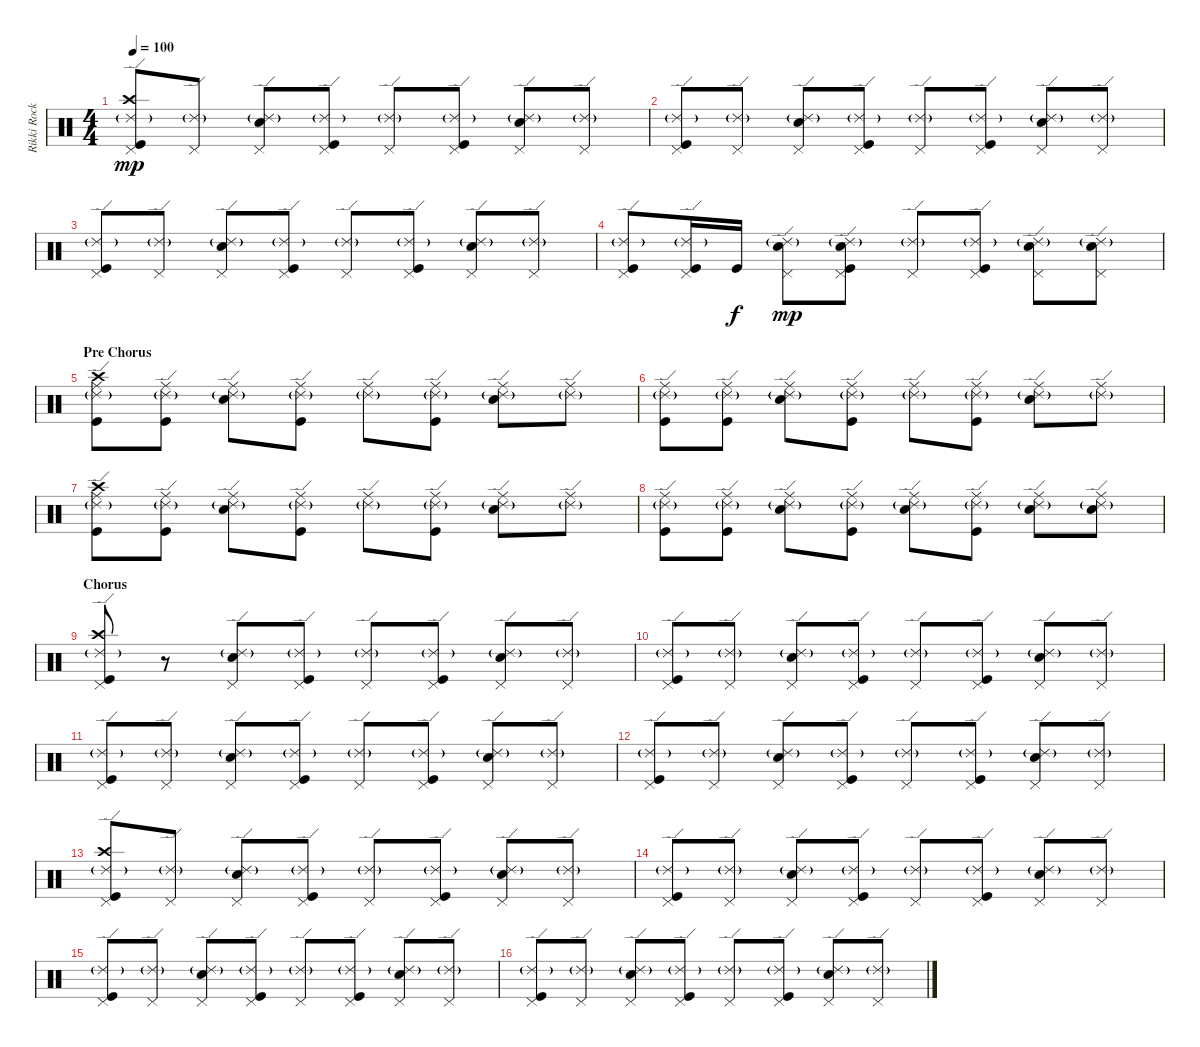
\track ("Rikki Rockett Drums" "Rikki Rock") {instrument percussion}
\staff {score}
\articulation defaults
\ts (4 4)
\tempo 100
\clef neutral
\ks c
("Ride (edge) 2"{g} "Pedal Hi-Hat (hit)" "Crash high (hit)" "Kick (hit)").8{dy mp} ("Ride (edge) 2"{g} "Pedal Hi-Hat (hit)").8 ("Ride (edge) 2"{g} "Pedal Hi-Hat (hit)" "Snare (hit) 2").8 ("Ride (edge) 2"{g} "Pedal Hi-Hat (hit)" "Kick (hit)").8 ("Ride (edge) 2"{g} "Pedal Hi-Hat (hit)").8 ("Ride (edge) 2"{g} "Pedal Hi-Hat (hit)" "Kick (hit)").8 ("Ride (edge) 2"{g} "Pedal Hi-Hat (hit)" "Snare (hit) 2").8 ("Ride (edge) 2"{g} "Pedal Hi-Hat (hit)").8 |
("Ride (edge) 2"{g} "Pedal Hi-Hat (hit)" "Kick (hit)").8 ("Ride (edge) 2"{g} "Pedal Hi-Hat (hit)").8 ("Ride (edge) 2"{g} "Pedal Hi-Hat (hit)" "Snare (hit) 2").8 ("Ride (edge) 2"{g} "Pedal Hi-Hat (hit)" "Kick (hit)").8 ("Ride (edge) 2"{g} "Pedal Hi-Hat (hit)").8 ("Ride (edge) 2"{g} "Pedal Hi-Hat (hit)" "Kick (hit)").8 ("Ride (edge) 2"{g} "Pedal Hi-Hat (hit)" "Snare (hit) 2").8 ("Ride (edge) 2"{g} "Pedal Hi-Hat (hit)").8 |
("Ride (edge) 2"{g} "Pedal Hi-Hat (hit)" "Kick (hit)").8 ("Ride (edge) 2"{g} "Pedal Hi-Hat (hit)").8 ("Ride (edge) 2"{g} "Pedal Hi-Hat (hit)" "Snare (hit) 2").8 ("Ride (edge) 2"{g} "Pedal Hi-Hat (hit)" "Kick (hit)").8 ("Ride (edge) 2"{g} "Pedal Hi-Hat (hit)").8 ("Ride (edge) 2"{g} "Pedal Hi-Hat (hit)" "Kick (hit)").8 ("Ride (edge) 2"{g} "Pedal Hi-Hat (hit)" "Snare (hit) 2").8 ("Ride (edge) 2"{g} "Pedal Hi-Hat (hit)").8 |
("Ride (edge) 2"{g} "Pedal Hi-Hat (hit)" "Kick (hit)").8 ("Ride (edge) 2"{g} "Pedal Hi-Hat (hit)" "Kick (hit)").16 "Kick (hit)".16{dy f} ("Ride (edge) 2"{g} "Pedal Hi-Hat (hit)" "Snare (hit) 2").8{dy mp} ("Ride (edge) 2"{g} "Pedal Hi-Hat (hit)" "Snare (hit) 2" "Kick (hit)").8 ("Ride (edge) 2"{g} "Pedal Hi-Hat (hit)").8 ("Ride (edge) 2"{g} "Pedal Hi-Hat (hit)" "Kick (hit)").8 ("Ride (edge) 2"{g} "Pedal Hi-Hat (hit)" "Snare (hit) 2").8 ("Ride (edge) 2"{g} "Pedal Hi-Hat (hit)" "Snare (hit) 2").8 |
\section ("" "Pre Chorus")
("Ride (edge) 2"{g} "Ride (middle)" "Crash high (hit)" "Kick (hit)").8 ("Ride (edge) 2"{g} "Ride (middle)" "Kick (hit)").8 ("Ride (edge) 2"{g} "Ride (middle)" "Snare (hit) 2").8 ("Ride (edge) 2"{g} "Ride (middle)" "Kick (hit)").8 ("Ride (edge) 2"{g} "Ride (middle)").8 ("Ride (edge) 2"{g} "Ride (middle)" "Kick (hit)").8 ("Ride (edge) 2"{g} "Ride (middle)" "Snare (hit) 2").8 ("Ride (edge) 2"{g} "Ride (middle)").8 |
("Ride (edge) 2"{g} "Ride (middle)" "Kick (hit)").8 ("Ride (edge) 2"{g} "Ride (middle)" "Kick (hit)").8 ("Ride (edge) 2"{g} "Ride (middle)" "Snare (hit) 2").8 ("Ride (edge) 2"{g} "Ride (middle)" "Kick (hit)").8 ("Ride (edge) 2"{g} "Ride (middle)").8 ("Ride (edge) 2"{g} "Ride (middle)" "Kick (hit)").8 ("Ride (edge) 2"{g} "Ride (middle)" "Snare (hit) 2").8 ("Ride (edge) 2"{g} "Ride (middle)").8 |
("Ride (edge) 2"{g} "Ride (middle)" "Crash high (hit)" "Kick (hit)").8 ("Ride (edge) 2"{g} "Ride (middle)" "Kick (hit)").8 ("Ride (edge) 2"{g} "Ride (middle)" "Snare (hit) 2").8 ("Ride (edge) 2"{g} "Ride (middle)" "Kick (hit)").8 ("Ride (edge) 2"{g} "Ride (middle)").8 ("Ride (edge) 2"{g} "Ride (middle)" "Kick (hit)").8 ("Ride (edge) 2"{g} "Ride (middle)" "Snare (hit) 2").8 ("Ride (edge) 2"{g} "Ride (middle)").8 |
("Ride (edge) 2"{g} "Ride (middle)" "Kick (hit)").8 ("Ride (edge) 2"{g} "Ride (middle)" "Kick (hit)").8 ("Ride (edge) 2"{g} "Ride (middle)" "Snare (hit) 2").8 ("Ride (edge) 2"{g} "Ride (middle)" "Kick (hit)").8 ("Ride (edge) 2"{g} "Ride (middle)" "Snare (hit) 2").8 ("Ride (edge) 2"{g} "Ride (middle)" "Kick (hit)").8 ("Ride (edge) 2"{g} "Ride (middle)" "Snare (hit) 2").8 ("Ride (edge) 2"{g} "Ride (middle)" "Snare (hit) 2").8 |
\section ("" "Chorus")
("Ride (edge) 2"{g} "Pedal Hi-Hat (hit)" "Crash high (hit)" "Kick (hit)").8 r.8 ("Ride (edge) 2"{g} "Pedal Hi-Hat (hit)" "Snare (hit) 2").8 ("Ride (edge) 2"{g} "Pedal Hi-Hat (hit)" "Kick (hit)").8 ("Ride (edge) 2"{g} "Pedal Hi-Hat (hit)").8 ("Ride (edge) 2"{g} "Pedal Hi-Hat (hit)" "Kick (hit)").8 ("Ride (edge) 2"{g} "Pedal Hi-Hat (hit)" "Snare (hit) 2").8 ("Ride (edge) 2"{g} "Pedal Hi-Hat (hit)").8 |
("Ride (edge) 2"{g} "Pedal Hi-Hat (hit)" "Kick (hit)").8 ("Ride (edge) 2"{g} "Pedal Hi-Hat (hit)").8 ("Ride (edge) 2"{g} "Pedal Hi-Hat (hit)" "Snare (hit) 2").8 ("Ride (edge) 2"{g} "Pedal Hi-Hat (hit)" "Kick (hit)").8 ("Ride (edge) 2"{g} "Pedal Hi-Hat (hit)").8 ("Ride (edge) 2"{g} "Pedal Hi-Hat (hit)" "Kick (hit)").8 ("Ride (edge) 2"{g} "Pedal Hi-Hat (hit)" "Snare (hit) 2").8 ("Ride (edge) 2"{g} "Pedal Hi-Hat (hit)").8 |
("Ride (edge) 2"{g} "Pedal Hi-Hat (hit)" "Kick (hit)").8 ("Ride (edge) 2"{g} "Pedal Hi-Hat (hit)").8 ("Ride (edge) 2"{g} "Pedal Hi-Hat (hit)" "Snare (hit) 2").8 ("Ride (edge) 2"{g} "Pedal Hi-Hat (hit)" "Kick (hit)").8 ("Ride (edge) 2"{g} "Pedal Hi-Hat (hit)").8 ("Ride (edge) 2"{g} "Pedal Hi-Hat (hit)" "Kick (hit)").8 ("Ride (edge) 2"{g} "Pedal Hi-Hat (hit)" "Snare (hit) 2").8 ("Ride (edge) 2"{g} "Pedal Hi-Hat (hit)").8 |
("Ride (edge) 2"{g} "Pedal Hi-Hat (hit)" "Kick (hit)").8 ("Ride (edge) 2"{g} "Pedal Hi-Hat (hit)").8 ("Ride (edge) 2"{g} "Pedal Hi-Hat (hit)" "Snare (hit) 2").8 ("Ride (edge) 2"{g} "Pedal Hi-Hat (hit)" "Kick (hit)").8 ("Ride (edge) 2"{g} "Pedal Hi-Hat (hit)").8 ("Ride (edge) 2"{g} "Pedal Hi-Hat (hit)" "Kick (hit)").8 ("Ride (edge) 2"{g} "Pedal Hi-Hat (hit)" "Snare (hit) 2").8 ("Ride (edge) 2"{g} "Pedal Hi-Hat (hit)").8 |
("Ride (edge) 2"{g} "Pedal Hi-Hat (hit)" "Crash high (hit)" "Kick (hit)").8 ("Ride (edge) 2"{g} "Pedal Hi-Hat (hit)").8 ("Ride (edge) 2"{g} "Pedal Hi-Hat (hit)" "Snare (hit) 2").8 ("Ride (edge) 2"{g} "Pedal Hi-Hat (hit)" "Kick (hit)").8 ("Ride (edge) 2"{g} "Pedal Hi-Hat (hit)").8 ("Ride (edge) 2"{g} "Pedal Hi-Hat (hit)" "Kick (hit)").8 ("Ride (edge) 2"{g} "Pedal Hi-Hat (hit)" "Snare (hit) 2").8 ("Ride (edge) 2"{g} "Pedal Hi-Hat (hit)").8 |
("Ride (edge) 2"{g} "Pedal Hi-Hat (hit)" "Kick (hit)").8 ("Ride (edge) 2"{g} "Pedal Hi-Hat (hit)").8 ("Ride (edge) 2"{g} "Pedal Hi-Hat (hit)" "Snare (hit) 2").8 ("Ride (edge) 2"{g} "Pedal Hi-Hat (hit)" "Kick (hit)").8 ("Ride (edge) 2"{g} "Pedal Hi-Hat (hit)").8 ("Ride (edge) 2"{g} "Pedal Hi-Hat (hit)" "Kick (hit)").8 ("Ride (edge) 2"{g} "Pedal Hi-Hat (hit)" "Snare (hit) 2").8 ("Ride (edge) 2"{g} "Pedal Hi-Hat (hit)").8 |
("Ride (edge) 2"{g} "Pedal Hi-Hat (hit)" "Kick (hit)").8 ("Ride (edge) 2"{g} "Pedal Hi-Hat (hit)").8 ("Ride (edge) 2"{g} "Pedal Hi-Hat (hit)" "Snare (hit) 2").8 ("Ride (edge) 2"{g} "Pedal Hi-Hat (hit)" "Kick (hit)").8 ("Ride (edge) 2"{g} "Pedal Hi-Hat (hit)").8 ("Ride (edge) 2"{g} "Pedal Hi-Hat (hit)" "Kick (hit)").8 ("Ride (edge) 2"{g} "Pedal Hi-Hat (hit)" "Snare (hit) 2").8 ("Ride (edge) 2"{g} "Pedal Hi-Hat (hit)").8 |
("Ride (edge) 2"{g} "Pedal Hi-Hat (hit)" "Kick (hit)").8 ("Ride (edge) 2"{g} "Pedal Hi-Hat (hit)").8 ("Ride (edge) 2"{g} "Pedal Hi-Hat (hit)" "Snare (hit) 2").8 ("Ride (edge) 2"{g} "Pedal Hi-Hat (hit)" "Kick (hit)").8 ("Ride (edge) 2"{g} "Pedal Hi-Hat (hit)").8 ("Ride (edge) 2"{g} "Pedal Hi-Hat (hit)" "Kick (hit)").8 ("Ride (edge) 2"{g} "Pedal Hi-Hat (hit)" "Snare (hit) 2").8 ("Ride (edge) 2"{g} "Pedal Hi-Hat (hit)").8
